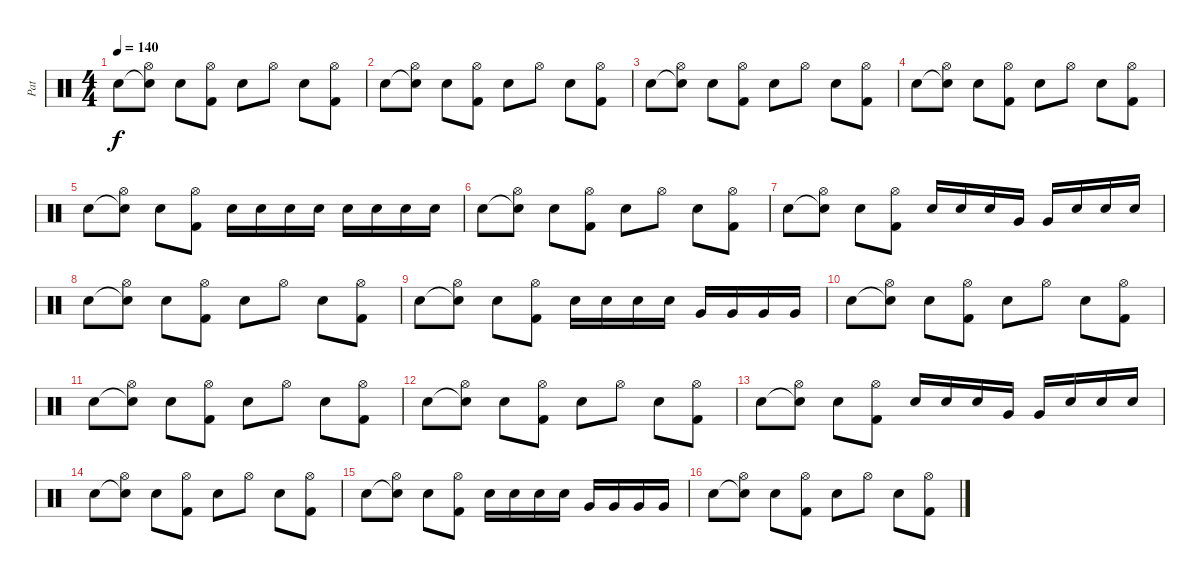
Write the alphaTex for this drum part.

\track ("Pat" "Pat") {instrument percussion}
\staff {score}
\articulation defaults
\ts (4 4)
\tempo 140
\clef neutral
\ks c "Snare (hit) 2".8{dy f}
("Snare (hit)"{t} "Hi-Hat (open)").8 "Snare (hit) 2".8 ("Kick (hit) 2" "Hi-Hat (open)").8 "Snare (hit) 2".8 "Hi-Hat (open)".8 "Snare (hit) 2".8 ("Kick (hit) 2" "Hi-Hat (open)").8 |
"Snare (hit) 2".8 ("Snare (hit)"{t} "Hi-Hat (open)").8 "Snare (hit) 2".8 ("Kick (hit) 2" "Hi-Hat (open)").8 "Snare (hit) 2".8 "Hi-Hat (open)".8 "Snare (hit) 2".8 ("Kick (hit) 2" "Hi-Hat (open)").8 |
"Snare (hit) 2".8 ("Snare (hit)"{t} "Hi-Hat (open)").8 "Snare (hit) 2".8 ("Kick (hit) 2" "Hi-Hat (open)").8 "Snare (hit) 2".8 "Hi-Hat (open)".8 "Snare (hit) 2".8 ("Kick (hit) 2" "Hi-Hat (open)").8 |
"Snare (hit) 2".8 ("Snare (hit)"{t} "Hi-Hat (open)").8 "Snare (hit) 2".8 ("Kick (hit) 2" "Hi-Hat (open)").8 "Snare (hit) 2".8 "Hi-Hat (open)".8 "Snare (hit) 2".8 ("Kick (hit) 2" "Hi-Hat (open)").8 |
"Snare (hit) 2".8 ("Snare (hit)"{t} "Hi-Hat (open)").8 "Snare (hit) 2".8 ("Kick (hit) 2" "Hi-Hat (open)").8 "Snare (hit) 2".16 "Snare (hit) 2".16 "Snare (hit) 2".16 "Snare (hit) 2".16 "Snare (hit) 2".16 "Snare (hit) 2".16 "Snare (hit) 2".16 "Snare (hit) 2".16 |
"Snare (hit) 2".8 ("Snare (hit)"{t} "Hi-Hat (open)").8 "Snare (hit) 2".8 ("Kick (hit) 2" "Hi-Hat (open)").8 "Snare (hit) 2".8 "Hi-Hat (open)".8 "Snare (hit) 2".8 ("Kick (hit) 2" "Hi-Hat (open)").8 |
"Snare (hit) 2".8 ("Snare (hit)"{t} "Hi-Hat (open)").8 "Snare (hit) 2".8 ("Kick (hit) 2" "Hi-Hat (open)").8 "Snare (hit) 2".16 "Snare (hit) 2".16 "Snare (hit) 2".16 "Very Low Tom (hit)".16 "Very Low Tom (hit)".16 "Snare (hit) 2".16 "Snare (hit) 2".16 "Snare (hit) 2".16 |
"Snare (hit) 2".8 ("Snare (hit)"{t} "Hi-Hat (open)").8 "Snare (hit) 2".8 ("Kick (hit) 2" "Hi-Hat (open)").8 "Snare (hit) 2".8 "Hi-Hat (open)".8 "Snare (hit) 2".8 ("Kick (hit) 2" "Hi-Hat (open)").8 |
"Snare (hit) 2".8 ("Snare (hit)"{t} "Hi-Hat (open)").8 "Snare (hit) 2".8 ("Kick (hit) 2" "Hi-Hat (open)").8 "Snare (hit) 2".16 "Snare (hit) 2".16 "Snare (hit) 2".16 "Snare (hit) 2".16 "Very Low Tom (hit)".16 "Very Low Tom (hit)".16 "Very Low Tom (hit)".16 "Very Low Tom (hit)".16 |
"Snare (hit) 2".8 ("Snare (hit)"{t} "Hi-Hat (open)").8 "Snare (hit) 2".8 ("Kick (hit) 2" "Hi-Hat (open)").8 "Snare (hit) 2".8 "Hi-Hat (open)".8 "Snare (hit) 2".8 ("Kick (hit) 2" "Hi-Hat (open)").8 |
"Snare (hit) 2".8 ("Snare (hit)"{t} "Hi-Hat (open)").8 "Snare (hit) 2".8 ("Kick (hit) 2" "Hi-Hat (open)").8 "Snare (hit) 2".8 "Hi-Hat (open)".8 "Snare (hit) 2".8 ("Kick (hit) 2" "Hi-Hat (open)").8 |
"Snare (hit) 2".8 ("Snare (hit)"{t} "Hi-Hat (open)").8 "Snare (hit) 2".8 ("Kick (hit) 2" "Hi-Hat (open)").8 "Snare (hit) 2".8 "Hi-Hat (open)".8 "Snare (hit) 2".8 ("Kick (hit) 2" "Hi-Hat (open)").8 |
"Snare (hit) 2".8 ("Snare (hit)"{t} "Hi-Hat (open)").8 "Snare (hit) 2".8 ("Kick (hit) 2" "Hi-Hat (open)").8 "Snare (hit) 2".16 "Snare (hit) 2".16 "Snare (hit) 2".16 "Very Low Tom (hit)".16 "Very Low Tom (hit)".16 "Snare (hit) 2".16 "Snare (hit) 2".16 "Snare (hit) 2".16 |
"Snare (hit) 2".8 ("Snare (hit)"{t} "Hi-Hat (open)").8 "Snare (hit) 2".8 ("Kick (hit) 2" "Hi-Hat (open)").8 "Snare (hit) 2".8 "Hi-Hat (open)".8 "Snare (hit) 2".8 ("Kick (hit) 2" "Hi-Hat (open)").8 |
"Snare (hit) 2".8 ("Snare (hit)"{t} "Hi-Hat (open)").8 "Snare (hit) 2".8 ("Kick (hit) 2" "Hi-Hat (open)").8 "Snare (hit) 2".16 "Snare (hit) 2".16 "Snare (hit) 2".16 "Snare (hit) 2".16 "Very Low Tom (hit)".16 "Very Low Tom (hit)".16 "Very Low Tom (hit)".16 "Very Low Tom (hit)".16 |
"Snare (hit) 2".8 ("Snare (hit)"{t} "Hi-Hat (open)").8 "Snare (hit) 2".8 ("Kick (hit) 2" "Hi-Hat (open)").8 "Snare (hit) 2".8 "Hi-Hat (open)".8 "Snare (hit) 2".8 ("Kick (hit) 2" "Hi-Hat (open)").8
